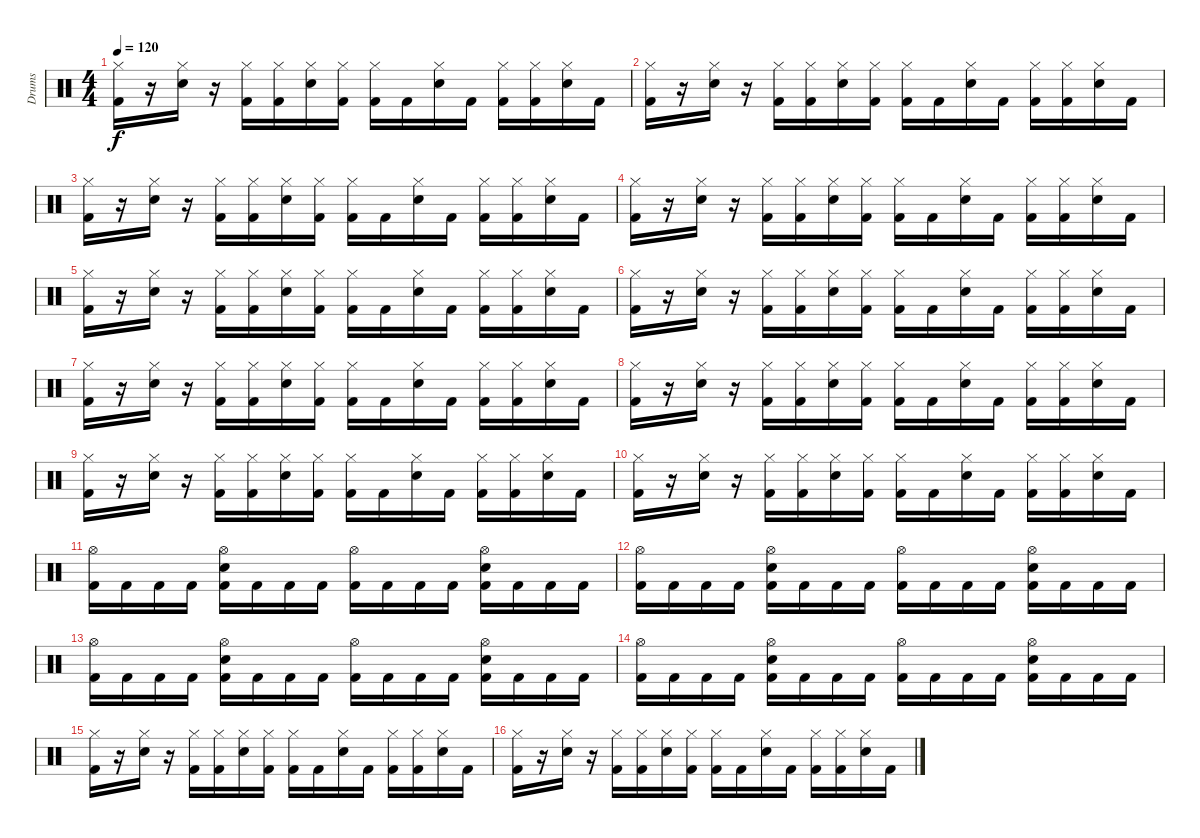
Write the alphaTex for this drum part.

\track ("Drums" "Drums") {instrument percussion}
\staff {score}
\articulation defaults
\ts (4 4)
\tempo 120
\clef neutral
\ks c
("Hi-Hat (closed)" "Kick (hit) 2").16{dy f} r.16 ("Hi-Hat (closed)" "Snare (hit) 2").16 r.16 ("Hi-Hat (closed)" "Kick (hit) 2").16 ("Hi-Hat (closed)" "Kick (hit) 2").16 ("Hi-Hat (closed)" "Snare (hit) 2").16 ("Hi-Hat (closed)" "Kick (hit) 2").16 ("Hi-Hat (closed)" "Kick (hit) 2").16 "Kick (hit) 2".16 ("Hi-Hat (closed)" "Snare (hit) 2").16 "Kick (hit) 2".16 ("Hi-Hat (closed)" "Kick (hit) 2").16 ("Hi-Hat (closed)" "Kick (hit) 2").16 ("Hi-Hat (closed)" "Snare (hit) 2").16 "Kick (hit) 2".16 |
("Hi-Hat (closed)" "Kick (hit) 2").16 r.16 ("Hi-Hat (closed)" "Snare (hit) 2").16 r.16 ("Hi-Hat (closed)" "Kick (hit) 2").16 ("Hi-Hat (closed)" "Kick (hit) 2").16 ("Hi-Hat (closed)" "Snare (hit) 2").16 ("Hi-Hat (closed)" "Kick (hit) 2").16 ("Hi-Hat (closed)" "Kick (hit) 2").16 "Kick (hit) 2".16 ("Hi-Hat (closed)" "Snare (hit) 2").16 "Kick (hit) 2".16 ("Hi-Hat (closed)" "Kick (hit) 2").16 ("Hi-Hat (closed)" "Kick (hit) 2").16 ("Hi-Hat (closed)" "Snare (hit) 2").16 "Kick (hit) 2".16 |
("Hi-Hat (closed)" "Kick (hit) 2").16 r.16 ("Hi-Hat (closed)" "Snare (hit) 2").16 r.16 ("Hi-Hat (closed)" "Kick (hit) 2").16 ("Hi-Hat (closed)" "Kick (hit) 2").16 ("Hi-Hat (closed)" "Snare (hit) 2").16 ("Hi-Hat (closed)" "Kick (hit) 2").16 ("Hi-Hat (closed)" "Kick (hit) 2").16 "Kick (hit) 2".16 ("Hi-Hat (closed)" "Snare (hit) 2").16 "Kick (hit) 2".16 ("Hi-Hat (closed)" "Kick (hit) 2").16 ("Hi-Hat (closed)" "Kick (hit) 2").16 ("Hi-Hat (closed)" "Snare (hit) 2").16 "Kick (hit) 2".16 |
("Hi-Hat (closed)" "Kick (hit) 2").16 r.16 ("Hi-Hat (closed)" "Snare (hit) 2").16 r.16 ("Hi-Hat (closed)" "Kick (hit) 2").16 ("Hi-Hat (closed)" "Kick (hit) 2").16 ("Hi-Hat (closed)" "Snare (hit) 2").16 ("Hi-Hat (closed)" "Kick (hit) 2").16 ("Hi-Hat (closed)" "Kick (hit) 2").16 "Kick (hit) 2".16 ("Hi-Hat (closed)" "Snare (hit) 2").16 "Kick (hit) 2".16 ("Hi-Hat (closed)" "Kick (hit) 2").16 ("Hi-Hat (closed)" "Kick (hit) 2").16 ("Hi-Hat (closed)" "Snare (hit) 2").16 "Kick (hit) 2".16 |
("Hi-Hat (closed)" "Kick (hit) 2").16 r.16 ("Hi-Hat (closed)" "Snare (hit) 2").16 r.16 ("Hi-Hat (closed)" "Kick (hit) 2").16 ("Hi-Hat (closed)" "Kick (hit) 2").16 ("Hi-Hat (closed)" "Snare (hit) 2").16 ("Hi-Hat (closed)" "Kick (hit) 2").16 ("Hi-Hat (closed)" "Kick (hit) 2").16 "Kick (hit) 2".16 ("Hi-Hat (closed)" "Snare (hit) 2").16 "Kick (hit) 2".16 ("Hi-Hat (closed)" "Kick (hit) 2").16 ("Hi-Hat (closed)" "Kick (hit) 2").16 ("Hi-Hat (closed)" "Snare (hit) 2").16 "Kick (hit) 2".16 |
("Hi-Hat (closed)" "Kick (hit) 2").16 r.16 ("Hi-Hat (closed)" "Snare (hit) 2").16 r.16 ("Hi-Hat (closed)" "Kick (hit) 2").16 ("Hi-Hat (closed)" "Kick (hit) 2").16 ("Hi-Hat (closed)" "Snare (hit) 2").16 ("Hi-Hat (closed)" "Kick (hit) 2").16 ("Hi-Hat (closed)" "Kick (hit) 2").16 "Kick (hit) 2".16 ("Hi-Hat (closed)" "Snare (hit) 2").16 "Kick (hit) 2".16 ("Hi-Hat (closed)" "Kick (hit) 2").16 ("Hi-Hat (closed)" "Kick (hit) 2").16 ("Hi-Hat (closed)" "Snare (hit) 2").16 "Kick (hit) 2".16 |
("Hi-Hat (closed)" "Kick (hit) 2").16 r.16 ("Hi-Hat (closed)" "Snare (hit) 2").16 r.16 ("Hi-Hat (closed)" "Kick (hit) 2").16 ("Hi-Hat (closed)" "Kick (hit) 2").16 ("Hi-Hat (closed)" "Snare (hit) 2").16 ("Hi-Hat (closed)" "Kick (hit) 2").16 ("Hi-Hat (closed)" "Kick (hit) 2").16 "Kick (hit) 2".16 ("Hi-Hat (closed)" "Snare (hit) 2").16 "Kick (hit) 2".16 ("Hi-Hat (closed)" "Kick (hit) 2").16 ("Hi-Hat (closed)" "Kick (hit) 2").16 ("Hi-Hat (closed)" "Snare (hit) 2").16 "Kick (hit) 2".16 |
("Hi-Hat (closed)" "Kick (hit) 2").16 r.16 ("Hi-Hat (closed)" "Snare (hit) 2").16 r.16 ("Hi-Hat (closed)" "Kick (hit) 2").16 ("Hi-Hat (closed)" "Kick (hit) 2").16 ("Hi-Hat (closed)" "Snare (hit) 2").16 ("Hi-Hat (closed)" "Kick (hit) 2").16 ("Hi-Hat (closed)" "Kick (hit) 2").16 "Kick (hit) 2".16 ("Hi-Hat (closed)" "Snare (hit) 2").16 "Kick (hit) 2".16 ("Hi-Hat (closed)" "Kick (hit) 2").16 ("Hi-Hat (closed)" "Kick (hit) 2").16 ("Hi-Hat (closed)" "Snare (hit) 2").16 "Kick (hit) 2".16 |
("Hi-Hat (closed)" "Kick (hit) 2").16 r.16 ("Hi-Hat (closed)" "Snare (hit) 2").16 r.16 ("Hi-Hat (closed)" "Kick (hit) 2").16 ("Hi-Hat (closed)" "Kick (hit) 2").16 ("Hi-Hat (closed)" "Snare (hit) 2").16 ("Hi-Hat (closed)" "Kick (hit) 2").16 ("Hi-Hat (closed)" "Kick (hit) 2").16 "Kick (hit) 2".16 ("Hi-Hat (closed)" "Snare (hit) 2").16 "Kick (hit) 2".16 ("Hi-Hat (closed)" "Kick (hit) 2").16 ("Hi-Hat (closed)" "Kick (hit) 2").16 ("Hi-Hat (closed)" "Snare (hit) 2").16 "Kick (hit) 2".16 |
("Hi-Hat (closed)" "Kick (hit) 2").16 r.16 ("Hi-Hat (closed)" "Snare (hit) 2").16 r.16 ("Hi-Hat (closed)" "Kick (hit) 2").16 ("Hi-Hat (closed)" "Kick (hit) 2").16 ("Hi-Hat (closed)" "Snare (hit) 2").16 ("Hi-Hat (closed)" "Kick (hit) 2").16 ("Hi-Hat (closed)" "Kick (hit) 2").16 "Kick (hit) 2".16 ("Hi-Hat (closed)" "Snare (hit) 2").16 "Kick (hit) 2".16 ("Hi-Hat (closed)" "Kick (hit) 2").16 ("Hi-Hat (closed)" "Kick (hit) 2").16 ("Hi-Hat (closed)" "Snare (hit) 2").16 "Kick (hit) 2".16 |
("Hi-Hat (open)" "Kick (hit) 2").16 "Kick (hit) 2".16 "Kick (hit) 2".16 "Kick (hit) 2".16 ("Hi-Hat (open)" "Snare (hit) 2" "Kick (hit) 2").16 "Kick (hit) 2".16 "Kick (hit) 2".16 "Kick (hit) 2".16 ("Hi-Hat (open)" "Kick (hit) 2").16 "Kick (hit) 2".16 "Kick (hit) 2".16 "Kick (hit) 2".16 ("Hi-Hat (open)" "Snare (hit) 2" "Kick (hit) 2").16 "Kick (hit) 2".16 "Kick (hit) 2".16 "Kick (hit) 2".16 |
("Hi-Hat (open)" "Kick (hit) 2").16 "Kick (hit) 2".16 "Kick (hit) 2".16 "Kick (hit) 2".16 ("Hi-Hat (open)" "Snare (hit) 2" "Kick (hit) 2").16 "Kick (hit) 2".16 "Kick (hit) 2".16 "Kick (hit) 2".16 ("Hi-Hat (open)" "Kick (hit) 2").16 "Kick (hit) 2".16 "Kick (hit) 2".16 "Kick (hit) 2".16 ("Hi-Hat (open)" "Snare (hit) 2" "Kick (hit) 2").16 "Kick (hit) 2".16 "Kick (hit) 2".16 "Kick (hit) 2".16 |
("Hi-Hat (open)" "Kick (hit) 2").16 "Kick (hit) 2".16 "Kick (hit) 2".16 "Kick (hit) 2".16 ("Hi-Hat (open)" "Snare (hit) 2" "Kick (hit) 2").16 "Kick (hit) 2".16 "Kick (hit) 2".16 "Kick (hit) 2".16 ("Hi-Hat (open)" "Kick (hit) 2").16 "Kick (hit) 2".16 "Kick (hit) 2".16 "Kick (hit) 2".16 ("Hi-Hat (open)" "Snare (hit) 2" "Kick (hit) 2").16 "Kick (hit) 2".16 "Kick (hit) 2".16 "Kick (hit) 2".16 |
("Hi-Hat (open)" "Kick (hit) 2").16 "Kick (hit) 2".16 "Kick (hit) 2".16 "Kick (hit) 2".16 ("Hi-Hat (open)" "Snare (hit) 2" "Kick (hit) 2").16 "Kick (hit) 2".16 "Kick (hit) 2".16 "Kick (hit) 2".16 ("Hi-Hat (open)" "Kick (hit) 2").16 "Kick (hit) 2".16 "Kick (hit) 2".16 "Kick (hit) 2".16 ("Hi-Hat (open)" "Snare (hit) 2" "Kick (hit) 2").16 "Kick (hit) 2".16 "Kick (hit) 2".16 "Kick (hit) 2".16 |
("Hi-Hat (closed)" "Kick (hit) 2").16 r.16 ("Hi-Hat (closed)" "Snare (hit) 2").16 r.16 ("Hi-Hat (closed)" "Kick (hit) 2").16 ("Hi-Hat (closed)" "Kick (hit) 2").16 ("Hi-Hat (closed)" "Snare (hit) 2").16 ("Hi-Hat (closed)" "Kick (hit) 2").16 ("Hi-Hat (closed)" "Kick (hit) 2").16 "Kick (hit) 2".16 ("Hi-Hat (closed)" "Snare (hit) 2").16 "Kick (hit) 2".16 ("Hi-Hat (closed)" "Kick (hit) 2").16 ("Hi-Hat (closed)" "Kick (hit) 2").16 ("Hi-Hat (closed)" "Snare (hit) 2").16 "Kick (hit) 2".16 |
("Hi-Hat (closed)" "Kick (hit) 2").16 r.16 ("Hi-Hat (closed)" "Snare (hit) 2").16 r.16 ("Hi-Hat (closed)" "Kick (hit) 2").16 ("Hi-Hat (closed)" "Kick (hit) 2").16 ("Hi-Hat (closed)" "Snare (hit) 2").16 ("Hi-Hat (closed)" "Kick (hit) 2").16 ("Hi-Hat (closed)" "Kick (hit) 2").16 "Kick (hit) 2".16 ("Hi-Hat (closed)" "Snare (hit) 2").16 "Kick (hit) 2".16 ("Hi-Hat (closed)" "Kick (hit) 2").16 ("Hi-Hat (closed)" "Kick (hit) 2").16 ("Hi-Hat (closed)" "Snare (hit) 2").16 "Kick (hit) 2".16
